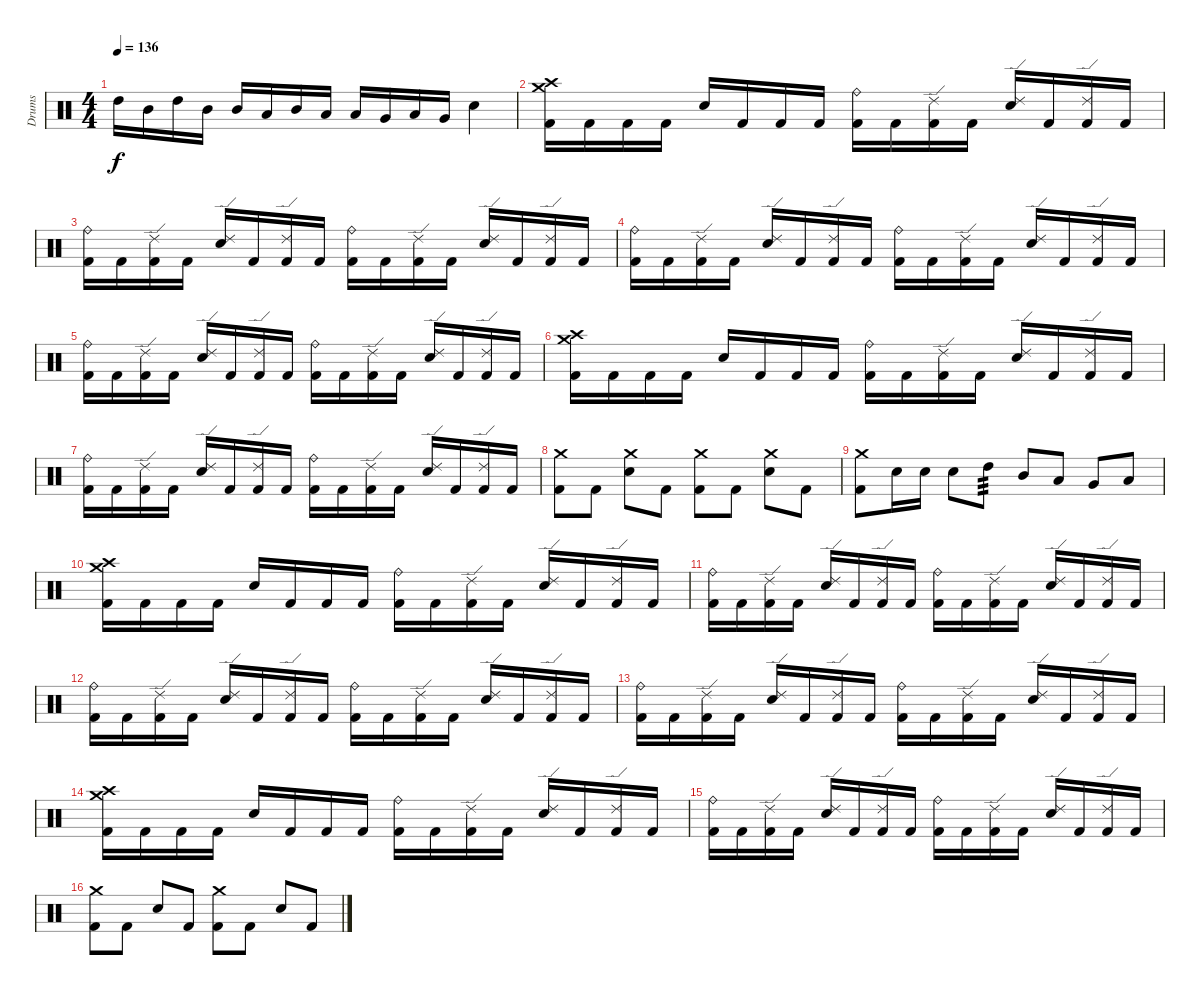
\track ("Drums" "Drums") {instrument percussion}
\staff {score}
\articulation defaults
\ts (4 4)
\tempo 136
\clef neutral
\ks c "High Tom (hit)".16{dy f} "Mid Tom (hit)".16 "High Tom (hit)".16 "Mid Tom (hit)".16 "Mid Tom (hit)".16 "Low Tom (hit)".16 "Mid Tom (hit)".16 "Low Tom (hit)".16 "Low Tom (hit)".16 "Very Low Tom (hit)".16 "Low Tom (hit)".16 "Very Low Tom (hit)".16 "Snare (hit) 2".4
|
("Crash medium (hit)" "Crash high (hit)" "Kick (hit) 2").16 "Kick (hit) 2".16 "Kick (hit) 2".16 "Kick (hit) 2".16 "Electric Snare (hit)".16 "Kick (hit) 2".16 "Kick (hit) 2".16 "Kick (hit) 2".16 ("Ride (bell)" "Kick (hit) 2").16 "Kick (hit) 2".16 ("Ride (edge) 2" "Kick (hit) 2").16 "Kick (hit) 2".16 ("Ride (edge) 2" "Electric Snare (hit)").16 "Kick (hit) 2".16 ("Ride (edge) 2" "Kick (hit) 2").16 "Kick (hit) 2".16 |
("Ride (bell)" "Kick (hit) 2").16 "Kick (hit) 2".16 ("Ride (edge) 2" "Kick (hit) 2").16 "Kick (hit) 2".16 ("Ride (edge) 2" "Electric Snare (hit)").16 "Kick (hit) 2".16 ("Ride (edge) 2" "Kick (hit) 2").16 "Kick (hit) 2".16 ("Ride (bell)" "Kick (hit) 2").16 "Kick (hit) 2".16 ("Ride (edge) 2" "Kick (hit) 2").16 "Kick (hit) 2".16 ("Ride (edge) 2" "Electric Snare (hit)").16 "Kick (hit) 2".16 ("Ride (edge) 2" "Kick (hit) 2").16 "Kick (hit) 2".16 |
("Ride (bell)" "Kick (hit) 2").16 "Kick (hit) 2".16 ("Ride (edge) 2" "Kick (hit) 2").16 "Kick (hit) 2".16 ("Ride (edge) 2" "Electric Snare (hit)").16 "Kick (hit) 2".16 ("Ride (edge) 2" "Kick (hit) 2").16 "Kick (hit) 2".16 ("Ride (bell)" "Kick (hit) 2").16 "Kick (hit) 2".16 ("Ride (edge) 2" "Kick (hit) 2").16 "Kick (hit) 2".16 ("Ride (edge) 2" "Electric Snare (hit)").16 "Kick (hit) 2".16 ("Ride (edge) 2" "Kick (hit) 2").16 "Kick (hit) 2".16 |
("Ride (bell)" "Kick (hit) 2").16 "Kick (hit) 2".16 ("Ride (edge) 2" "Kick (hit) 2").16 "Kick (hit) 2".16 ("Ride (edge) 2" "Electric Snare (hit)").16 "Kick (hit) 2".16 ("Ride (edge) 2" "Kick (hit) 2").16 "Kick (hit) 2".16 ("Ride (bell)" "Kick (hit) 2").16 "Kick (hit) 2".16 ("Ride (edge) 2" "Kick (hit) 2").16 "Kick (hit) 2".16 ("Ride (edge) 2" "Electric Snare (hit)").16 "Kick (hit) 2".16 ("Ride (edge) 2" "Kick (hit) 2").16 "Kick (hit) 2".16 |
("Crash medium (hit)" "Crash high (hit)" "Kick (hit) 2").16 "Kick (hit) 2".16 "Kick (hit) 2".16 "Kick (hit) 2".16 "Electric Snare (hit)".16 "Kick (hit) 2".16 "Kick (hit) 2".16 "Kick (hit) 2".16 ("Ride (bell)" "Kick (hit) 2").16 "Kick (hit) 2".16 ("Ride (edge) 2" "Kick (hit) 2").16 "Kick (hit) 2".16 ("Ride (edge) 2" "Electric Snare (hit)").16 "Kick (hit) 2".16 ("Ride (edge) 2" "Kick (hit) 2").16 "Kick (hit) 2".16 |
("Ride (bell)" "Kick (hit) 2").16 "Kick (hit) 2".16 ("Ride (edge) 2" "Kick (hit) 2").16 "Kick (hit) 2".16 ("Ride (edge) 2" "Electric Snare (hit)").16 "Kick (hit) 2".16 ("Ride (edge) 2" "Kick (hit) 2").16 "Kick (hit) 2".16 ("Ride (bell)" "Kick (hit) 2").16 "Kick (hit) 2".16 ("Ride (edge) 2" "Kick (hit) 2").16 "Kick (hit) 2".16 ("Ride (edge) 2" "Electric Snare (hit)").16 "Kick (hit) 2".16 ("Ride (edge) 2" "Kick (hit) 2").16 "Kick (hit) 2".16 |
("Crash medium (hit)" "Kick (hit) 2").8 "Kick (hit) 2".8 ("Crash medium (hit)" "Electric Snare (hit)").8 "Kick (hit) 2".8 ("Crash medium (hit)" "Kick (hit) 2").8 "Kick (hit) 2".8 ("Crash medium (hit)" "Electric Snare (hit)").8 "Kick (hit) 2".8 |
("Crash medium (hit)" "Kick (hit) 2").8 "Electric Snare (hit)".16 "Electric Snare (hit)".16 "Electric Snare (hit)".8 "High Tom (hit)".8{tp 3} "Mid Tom (hit)".8 "Low Tom (hit)".8 "Very Low Tom (hit)".8 "Low Floor Tom (hit)".8 |
("Crash medium (hit)" "Crash high (hit)" "Kick (hit) 2").16 "Kick (hit) 2".16 "Kick (hit) 2".16 "Kick (hit) 2".16 "Electric Snare (hit)".16 "Kick (hit) 2".16 "Kick (hit) 2".16 "Kick (hit) 2".16 ("Ride (bell)" "Kick (hit) 2").16 "Kick (hit) 2".16 ("Ride (edge) 2" "Kick (hit) 2").16 "Kick (hit) 2".16 ("Ride (edge) 2" "Electric Snare (hit)").16 "Kick (hit) 2".16 ("Ride (edge) 2" "Kick (hit) 2").16 "Kick (hit) 2".16 |
("Ride (bell)" "Kick (hit) 2").16 "Kick (hit) 2".16 ("Ride (edge) 2" "Kick (hit) 2").16 "Kick (hit) 2".16 ("Ride (edge) 2" "Electric Snare (hit)").16 "Kick (hit) 2".16 ("Ride (edge) 2" "Kick (hit) 2").16 "Kick (hit) 2".16 ("Ride (bell)" "Kick (hit) 2").16 "Kick (hit) 2".16 ("Ride (edge) 2" "Kick (hit) 2").16 "Kick (hit) 2".16 ("Ride (edge) 2" "Electric Snare (hit)").16 "Kick (hit) 2".16 ("Ride (edge) 2" "Kick (hit) 2").16 "Kick (hit) 2".16 |
("Ride (bell)" "Kick (hit) 2").16 "Kick (hit) 2".16 ("Ride (edge) 2" "Kick (hit) 2").16 "Kick (hit) 2".16 ("Ride (edge) 2" "Electric Snare (hit)").16 "Kick (hit) 2".16 ("Ride (edge) 2" "Kick (hit) 2").16 "Kick (hit) 2".16 ("Ride (bell)" "Kick (hit) 2").16 "Kick (hit) 2".16 ("Ride (edge) 2" "Kick (hit) 2").16 "Kick (hit) 2".16 ("Ride (edge) 2" "Electric Snare (hit)").16 "Kick (hit) 2".16 ("Ride (edge) 2" "Kick (hit) 2").16 "Kick (hit) 2".16 |
("Ride (bell)" "Kick (hit) 2").16 "Kick (hit) 2".16 ("Ride (edge) 2" "Kick (hit) 2").16 "Kick (hit) 2".16 ("Ride (edge) 2" "Electric Snare (hit)").16 "Kick (hit) 2".16 ("Ride (edge) 2" "Kick (hit) 2").16 "Kick (hit) 2".16 ("Ride (bell)" "Kick (hit) 2").16 "Kick (hit) 2".16 ("Ride (edge) 2" "Kick (hit) 2").16 "Kick (hit) 2".16 ("Ride (edge) 2" "Electric Snare (hit)").16 "Kick (hit) 2".16 ("Ride (edge) 2" "Kick (hit) 2").16 "Kick (hit) 2".16 |
("Crash medium (hit)" "Crash high (hit)" "Kick (hit) 2").16 "Kick (hit) 2".16 "Kick (hit) 2".16 "Kick (hit) 2".16 "Electric Snare (hit)".16 "Kick (hit) 2".16 "Kick (hit) 2".16 "Kick (hit) 2".16 ("Ride (bell)" "Kick (hit) 2").16 "Kick (hit) 2".16 ("Ride (edge) 2" "Kick (hit) 2").16 "Kick (hit) 2".16 ("Ride (edge) 2" "Electric Snare (hit)").16 "Kick (hit) 2".16 ("Ride (edge) 2" "Kick (hit) 2").16 "Kick (hit) 2".16 |
("Ride (bell)" "Kick (hit) 2").16 "Kick (hit) 2".16 ("Ride (edge) 2" "Kick (hit) 2").16 "Kick (hit) 2".16 ("Ride (edge) 2" "Electric Snare (hit)").16 "Kick (hit) 2".16 ("Ride (edge) 2" "Kick (hit) 2").16 "Kick (hit) 2".16 ("Ride (bell)" "Kick (hit) 2").16 "Kick (hit) 2".16 ("Ride (edge) 2" "Kick (hit) 2").16 "Kick (hit) 2".16 ("Ride (edge) 2" "Electric Snare (hit)").16 "Kick (hit) 2".16 ("Ride (edge) 2" "Kick (hit) 2").16 "Kick (hit) 2".16 |
("Crash medium (hit)" "Kick (hit) 2").8 "Kick (hit) 2".8 "Electric Snare (hit)".8 "Kick (hit) 2".8 ("Crash medium (hit)" "Kick (hit) 2").8 "Kick (hit) 2".8 "Electric Snare (hit)".8 "Kick (hit) 2".8
